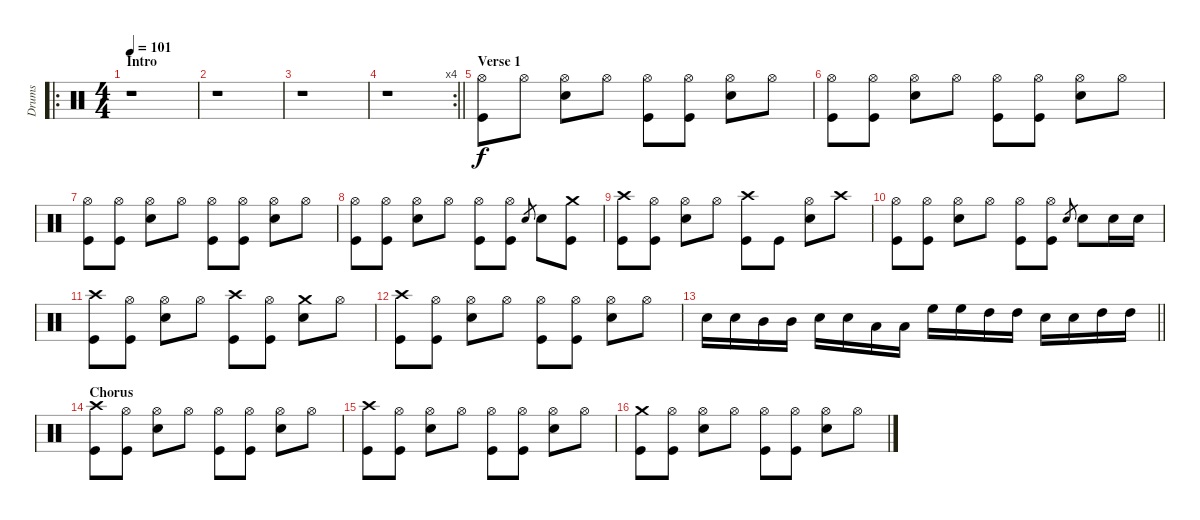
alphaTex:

\track ("Drums" "Drums") {instrument percussion}
\staff {score}
\articulation defaults
\ro
\ts (4 4)
\section ("" "Intro")
\tempo 101
\clef neutral
\ks c
r.1{dy f} |
r.1 |
r.1 |
\rc 4
\barLineRight lightlight
r.1 |
\section ("" "Verse 1")
("Hi-Hat (open)" "Kick (hit)").8 "Hi-Hat (open)".8 ("Hi-Hat (open)" "Snare (hit) 2").8 "Hi-Hat (open)".8 ("Hi-Hat (open)" "Kick (hit)").8 ("Hi-Hat (open)" "Kick (hit)").8 ("Hi-Hat (open)" "Snare (hit) 2").8 "Hi-Hat (open)".8 |
("Hi-Hat (open)" "Kick (hit)").8 ("Hi-Hat (open)" "Kick (hit)").8 ("Hi-Hat (open)" "Snare (hit) 2").8 "Hi-Hat (open)".8 ("Hi-Hat (open)" "Kick (hit)").8 ("Hi-Hat (open)" "Kick (hit)").8 ("Hi-Hat (open)" "Snare (hit) 2").8 "Hi-Hat (open)".8 |
("Hi-Hat (open)" "Kick (hit)").8 ("Hi-Hat (open)" "Kick (hit)").8 ("Hi-Hat (open)" "Snare (hit) 2").8 "Hi-Hat (open)".8 ("Hi-Hat (open)" "Kick (hit)").8 ("Hi-Hat (open)" "Kick (hit)").8 ("Hi-Hat (open)" "Snare (hit) 2").8 "Hi-Hat (open)".8 |
("Hi-Hat (open)" "Kick (hit)").8 ("Hi-Hat (open)" "Kick (hit)").8 ("Hi-Hat (open)" "Snare (hit) 2").8 "Hi-Hat (open)".8 ("Hi-Hat (open)" "Kick (hit)").8 ("Hi-Hat (open)" "Kick (hit)").8 "Snare (hit) 2"{h}.8{gr} "Snare (hit) 2".8 ("Crash medium (hit)" "Kick (hit)").8 |
("Crash high (hit)" "Kick (hit)").8 ("Hi-Hat (open)" "Kick (hit)").8 ("Hi-Hat (open)" "Snare (hit) 2").8 "Hi-Hat (open)".8 ("Crash high (hit)" "Kick (hit)").8 "Kick (hit)".8 ("Hi-Hat (open)" "Snare (hit) 2").8 "Crash high (hit)".8 |
("Hi-Hat (open)" "Kick (hit)").8 ("Hi-Hat (open)" "Kick (hit)").8 ("Hi-Hat (open)" "Snare (hit) 2").8 "Hi-Hat (open)".8 ("Hi-Hat (open)" "Kick (hit)").8 ("Hi-Hat (open)" "Kick (hit)").8 "Snare (hit) 2"{h}.8{gr} "Snare (hit) 2".8 "Snare (hit) 2".16 "Snare (hit) 2".16 |
("Crash high (hit)" "Kick (hit)").8 ("Hi-Hat (open)" "Kick (hit)").8 ("Hi-Hat (open)" "Snare (hit) 2").8 "Hi-Hat (open)".8 ("Crash high (hit)" "Kick (hit)").8 ("Hi-Hat (open)" "Kick (hit)").8 ("Crash medium (hit)" "Snare (hit) 2").8 "Hi-Hat (open)".8 |
("Crash high (hit)" "Kick (hit)").8 ("Hi-Hat (open)" "Kick (hit)").8 ("Hi-Hat (open)" "Snare (hit) 2").8 "Hi-Hat (open)".8 ("Hi-Hat (open)" "Kick (hit)").8 ("Hi-Hat (open)" "Kick (hit)").8 ("Hi-Hat (open)" "Snare (hit) 2").8 "Hi-Hat (open)".8 |
\barLineRight lightlight "Snare (hit) 2".16 "Snare (hit) 2".16 "Mid Tom (hit)".16 "Mid Tom (hit)".16 "Snare (hit) 2".16 "Snare (hit) 2".16 "Low Tom (hit)".16 "Low Tom (hit)".16 "High Floor Tom (hit)".16 "High Floor Tom (hit)".16 "High Tom (hit)".16 "High Tom (hit)".16 "Snare (hit) 2".16 "Snare (hit) 2".16 "High Tom (hit)".16 "High Tom (hit)".16
|
\section ("" "Chorus")
("Crash high (hit)" "Kick (hit)").8 ("Hi-Hat (open)" "Kick (hit)").8 ("Hi-Hat (open)" "Snare (hit) 2").8 "Hi-Hat (open)".8 ("Hi-Hat (open)" "Kick (hit)").8 ("Hi-Hat (open)" "Kick (hit)").8 ("Hi-Hat (open)" "Snare (hit) 2").8 "Hi-Hat (open)".8 |
("Crash high (hit)" "Kick (hit)").8 ("Hi-Hat (open)" "Kick (hit)").8 ("Hi-Hat (open)" "Snare (hit) 2").8 "Hi-Hat (open)".8 ("Hi-Hat (open)" "Kick (hit)").8 ("Hi-Hat (open)" "Kick (hit)").8 ("Hi-Hat (open)" "Snare (hit) 2").8 "Hi-Hat (open)".8 |
("Crash medium (hit)" "Kick (hit)").8 ("Hi-Hat (open)" "Kick (hit)").8 ("Hi-Hat (open)" "Snare (hit) 2").8 "Hi-Hat (open)".8 ("Hi-Hat (open)" "Kick (hit)").8 ("Hi-Hat (open)" "Kick (hit)").8 ("Hi-Hat (open)" "Snare (hit) 2").8 "Hi-Hat (open)".8
